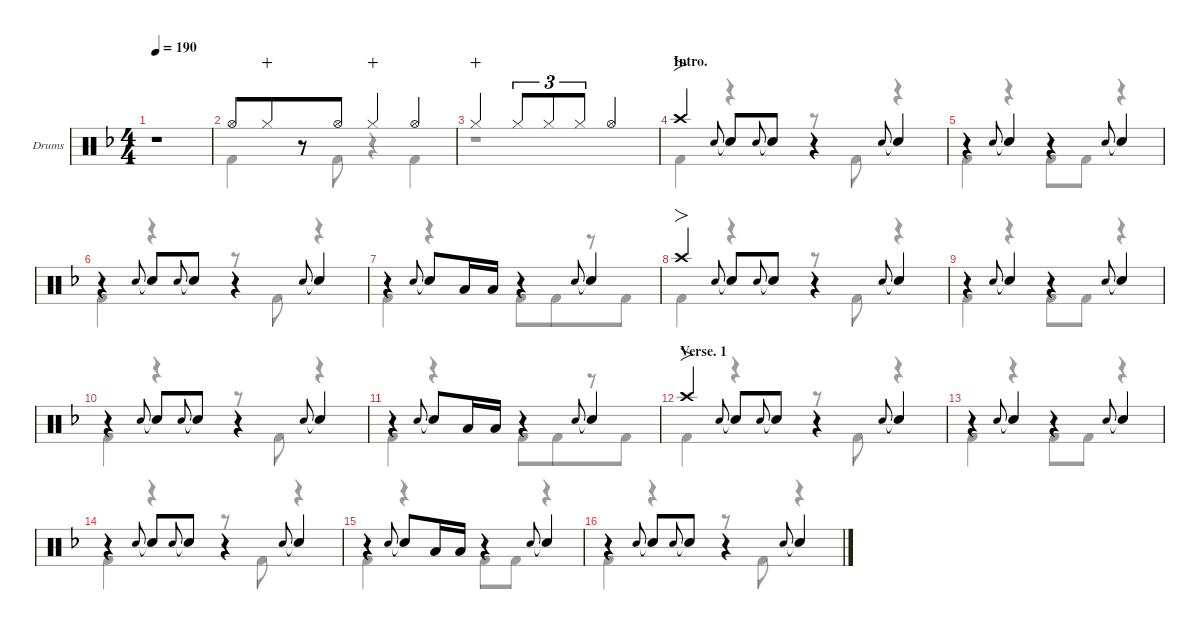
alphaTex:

\defaultSystemsLayout 4
\hideDynamics
\bracketExtendMode nobrackets
\firstSystemTrackNameOrientation horizontal
\track ("Drums" "Drums") {defaultSystemsLayout 4 instrument percussion}
\staff {score}
\articulation defaults
\voice
\ts (4 4)
\beaming (8 4 4)
\tempo 190
\clef neutral
\ks dminor
r.1{dy f} |
"Hi-Hat (open)"{acc forcenatural}.8 "Hi-Hat (closed)"{acc forcenatural}.8{dy p wahc} r.8 "Hi-Hat (open)"{acc forcenatural}.8{dy f} "Hi-Hat (closed)"{acc forcenatural}.4{dy p wahc} "Hi-Hat (open)"{acc forcenatural}.4{dy f} |
"Hi-Hat (closed)"{acc forcenatural}.4{dy p wahc} "Hi-Hat (closed)"{acc forcenatural}.8{tu (3 2) dy f} "Hi-Hat (closed)"{acc forcenatural}.8{tu (3 2) dy mf} "Hi-Hat (closed)"{acc forcenatural}.8{tu (3 2)} "Hi-Hat (open)"{acc forcenatural}.2{dy f} |
\section ("" "Intro.")
"Crash high (hit)"{acc forcenatural}.4{fo} "Snare (hit) 2"{acc forcenatural}.8{gr onbeat} "Snare (hit) 2"{t acc forcenatural}.8 "Snare (hit) 2"{acc forcenatural}.8{gr onbeat} "Snare (hit) 2"{t acc forcenatural}.8 r.4 "Snare (hit) 2"{acc forcenatural}.8{gr onbeat} "Snare (hit) 2"{t acc forcenatural}.4 |
r.4 "Snare (hit) 2"{acc forcenatural}.8{gr onbeat} "Snare (hit) 2"{t acc forcenatural}.4 r.4 "Snare (hit) 2"{acc forcenatural}.8{gr onbeat} "Snare (hit) 2"{t acc forcenatural}.4 |
r.4 "Snare (hit) 2"{acc forcenatural}.8{gr onbeat} "Snare (hit) 2"{t acc forcenatural}.8 "Snare (hit) 2"{acc forcenatural}.8{gr onbeat} "Snare (hit) 2"{t acc forcenatural}.8 r.4 "Snare (hit) 2"{acc forcenatural}.8{gr onbeat} "Snare (hit) 2"{t acc forcenatural}.4 |
r.4 "Snare (hit) 2"{acc forcenatural}.8{gr onbeat} "Snare (hit) 2"{t acc forcenatural}.8 "Low Tom (hit)"{acc forcenatural}.16 "Low Tom (hit)"{acc forcenatural}.16 r.4 "Snare (hit) 2"{acc forcenatural}.8{gr onbeat} "Snare (hit) 2"{t acc forcenatural}.4 |
"Crash high (hit)"{acc forcenatural}.4{fo} "Snare (hit) 2"{acc forcenatural}.8{gr onbeat} "Snare (hit) 2"{t acc forcenatural}.8 "Snare (hit) 2"{acc forcenatural}.8{gr onbeat} "Snare (hit) 2"{t acc forcenatural}.8 r.4 "Snare (hit) 2"{acc forcenatural}.8{gr onbeat} "Snare (hit) 2"{t acc forcenatural}.4 |
r.4 "Snare (hit) 2"{acc forcenatural}.8{gr onbeat} "Snare (hit) 2"{t acc forcenatural}.4 r.4 "Snare (hit) 2"{acc forcenatural}.8{gr onbeat} "Snare (hit) 2"{t acc forcenatural}.4 |
r.4 "Snare (hit) 2"{acc forcenatural}.8{gr onbeat} "Snare (hit) 2"{t acc forcenatural}.8 "Snare (hit) 2"{acc forcenatural}.8{gr onbeat} "Snare (hit) 2"{t acc forcenatural}.8 r.4 "Snare (hit) 2"{acc forcenatural}.8{gr onbeat} "Snare (hit) 2"{t acc forcenatural}.4 |
r.4 "Snare (hit) 2"{acc forcenatural}.8{gr onbeat} "Snare (hit) 2"{t acc forcenatural}.8 "Low Tom (hit)"{acc forcenatural}.16 "Low Tom (hit)"{acc forcenatural}.16 r.4 "Snare (hit) 2"{acc forcenatural}.8{gr onbeat} "Snare (hit) 2"{t acc forcenatural}.4 |
\section ("" "Verse. 1")
"Crash high (hit)"{acc forcenatural}.4{fo} "Snare (hit) 2"{acc forcenatural}.8{gr onbeat} "Snare (hit) 2"{t acc forcenatural}.8 "Snare (hit) 2"{acc forcenatural}.8{gr onbeat} "Snare (hit) 2"{t acc forcenatural}.8 r.4 "Snare (hit) 2"{acc forcenatural}.8{gr onbeat} "Snare (hit) 2"{t acc forcenatural}.4 |
r.4 "Snare (hit) 2"{acc forcenatural}.8{gr onbeat} "Snare (hit) 2"{t acc forcenatural}.4 r.4 "Snare (hit) 2"{acc forcenatural}.8{gr onbeat} "Snare (hit) 2"{t acc forcenatural}.4 |
r.4 "Snare (hit) 2"{acc forcenatural}.8{gr onbeat} "Snare (hit) 2"{t acc forcenatural}.8 "Snare (hit) 2"{acc forcenatural}.8{gr onbeat} "Snare (hit) 2"{t acc forcenatural}.8 r.4 "Snare (hit) 2"{acc forcenatural}.8{gr onbeat} "Snare (hit) 2"{t acc forcenatural}.4 |
r.4 "Snare (hit) 2"{acc forcenatural}.8{gr onbeat} "Snare (hit) 2"{t acc forcenatural}.8 "Low Tom (hit)"{acc forcenatural}.16 "Low Tom (hit)"{acc forcenatural}.16 r.4 "Snare (hit) 2"{acc forcenatural}.8{gr onbeat} "Snare (hit) 2"{t acc forcenatural}.4 |
r.4 "Snare (hit) 2"{acc forcenatural}.8{gr onbeat} "Snare (hit) 2"{t acc forcenatural}.8 "Snare (hit) 2"{acc forcenatural}.8{gr onbeat} "Snare (hit) 2"{t acc forcenatural}.8 r.4 "Snare (hit) 2"{acc forcenatural}.8{gr onbeat} "Snare (hit) 2"{t acc forcenatural}.4
\voice
\clef neutral
\ottava regular
\simile none
\ks dminor
r.1{dy f} |
"Kick (hit) 2"{acc forcenatural}.4 r.8 "Kick (hit) 2"{acc forcenatural}.8 r.4 "Kick (hit) 2"{acc forcenatural}.4 |
r.1 |
"Kick (hit) 2"{acc forcenatural}.4 r.4 r.8 "Kick (hit) 2"{acc forcenatural}.8 r.4 |
"Kick (hit) 2"{acc forcenatural}.4 r.4 "Kick (hit) 2"{acc forcenatural}.8 "Kick (hit) 2"{acc forcenatural}.8 r.4 |
"Kick (hit) 2"{acc forcenatural}.4 r.4 r.8 "Kick (hit) 2"{acc forcenatural}.8 r.4 |
"Kick (hit) 2"{acc forcenatural}.4 r.4 "Kick (hit) 2"{acc forcenatural}.8 "Kick (hit) 2"{acc forcenatural}.8 r.8 "Kick (hit) 2"{acc forcenatural}.8 |
"Kick (hit) 2"{acc forcenatural}.4 r.4 r.8 "Kick (hit) 2"{acc forcenatural}.8 r.4 |
"Kick (hit) 2"{acc forcenatural}.4 r.4 "Kick (hit) 2"{acc forcenatural}.8 "Kick (hit) 2"{acc forcenatural}.8 r.4 |
"Kick (hit) 2"{acc forcenatural}.4 r.4 r.8 "Kick (hit) 2"{acc forcenatural}.8 r.4 |
"Kick (hit) 2"{acc forcenatural}.4 r.4 "Kick (hit) 2"{acc forcenatural}.8 "Kick (hit) 2"{acc forcenatural}.8 r.8 "Kick (hit) 2"{acc forcenatural}.8 |
"Kick (hit) 2"{acc forcenatural}.4 r.4 r.8 "Kick (hit) 2"{acc forcenatural}.8 r.4 |
"Kick (hit) 2"{acc forcenatural}.4 r.4 "Kick (hit) 2"{acc forcenatural}.8 "Kick (hit) 2"{acc forcenatural}.8 r.4 |
"Kick (hit) 2"{acc forcenatural}.4 r.4 r.8 "Kick (hit) 2"{acc forcenatural}.8 r.4 |
"Kick (hit) 2"{acc forcenatural}.4 r.4 "Kick (hit) 2"{acc forcenatural}.8 "Kick (hit) 2"{acc forcenatural}.8 r.4 |
"Kick (hit) 2"{acc forcenatural}.4 r.4 r.8 "Kick (hit) 2"{acc forcenatural}.8 r.4
